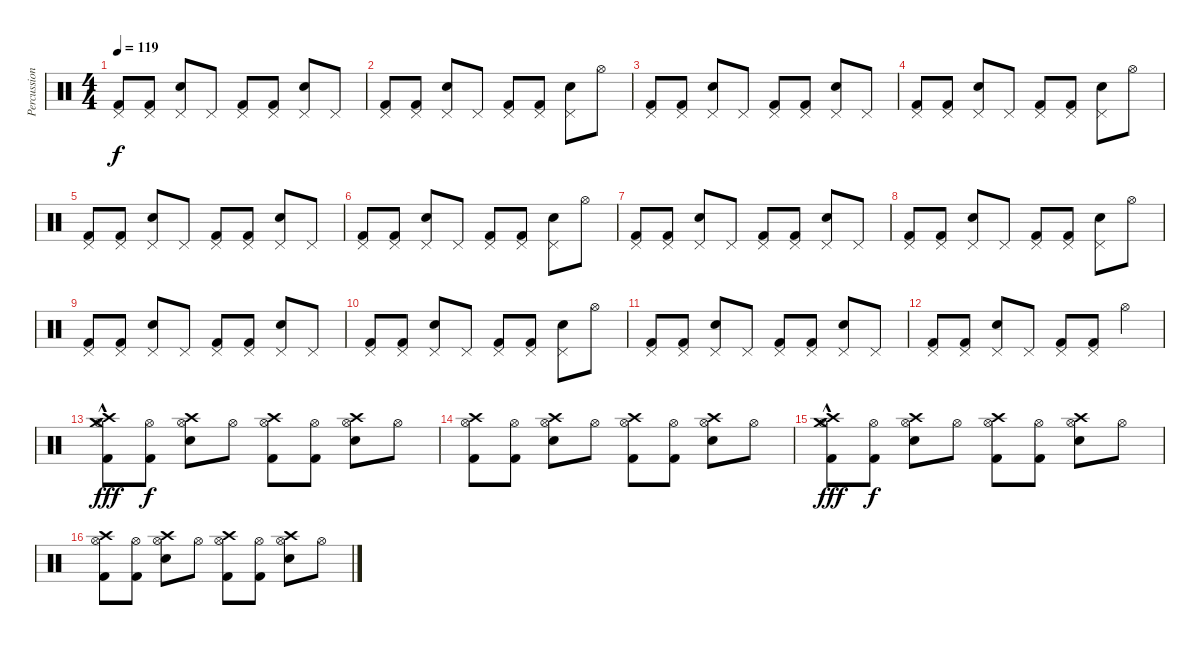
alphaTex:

\track ("Percussion" "Percussion") {instrument percussion}
\staff {score}
\articulation defaults
\ts (4 4)
\tempo 119
\clef neutral
\ks c
("Pedal Hi-Hat (hit)" "Kick (hit) 2").8{dy f} ("Pedal Hi-Hat (hit)" "Kick (hit) 2").8 ("Pedal Hi-Hat (hit)" "Electric Snare (hit)").8 "Pedal Hi-Hat (hit)".8 ("Pedal Hi-Hat (hit)" "Kick (hit) 2").8 ("Pedal Hi-Hat (hit)" "Kick (hit) 2").8 ("Pedal Hi-Hat (hit)" "Electric Snare (hit)").8 "Pedal Hi-Hat (hit)".8 |
("Pedal Hi-Hat (hit)" "Kick (hit) 2").8 ("Pedal Hi-Hat (hit)" "Kick (hit) 2").8 ("Pedal Hi-Hat (hit)" "Electric Snare (hit)").8 "Pedal Hi-Hat (hit)".8 ("Pedal Hi-Hat (hit)" "Kick (hit) 2").8 ("Pedal Hi-Hat (hit)" "Kick (hit) 2").8 ("Pedal Hi-Hat (hit)" "Electric Snare (hit)").8 "Hi-Hat (open)".8 |
("Pedal Hi-Hat (hit)" "Kick (hit) 2").8 ("Pedal Hi-Hat (hit)" "Kick (hit) 2").8 ("Pedal Hi-Hat (hit)" "Electric Snare (hit)").8 "Pedal Hi-Hat (hit)".8 ("Pedal Hi-Hat (hit)" "Kick (hit) 2").8 ("Pedal Hi-Hat (hit)" "Kick (hit) 2").8 ("Pedal Hi-Hat (hit)" "Electric Snare (hit)").8 "Pedal Hi-Hat (hit)".8 |
("Pedal Hi-Hat (hit)" "Kick (hit) 2").8 ("Pedal Hi-Hat (hit)" "Kick (hit) 2").8 ("Pedal Hi-Hat (hit)" "Electric Snare (hit)").8 "Pedal Hi-Hat (hit)".8 ("Pedal Hi-Hat (hit)" "Kick (hit) 2").8 ("Pedal Hi-Hat (hit)" "Kick (hit) 2").8 ("Pedal Hi-Hat (hit)" "Electric Snare (hit)").8 "Hi-Hat (open)".8 |
("Pedal Hi-Hat (hit)" "Kick (hit) 2").8 ("Pedal Hi-Hat (hit)" "Kick (hit) 2").8 ("Pedal Hi-Hat (hit)" "Electric Snare (hit)").8 "Pedal Hi-Hat (hit)".8 ("Pedal Hi-Hat (hit)" "Kick (hit) 2").8 ("Pedal Hi-Hat (hit)" "Kick (hit) 2").8 ("Pedal Hi-Hat (hit)" "Electric Snare (hit)").8 "Pedal Hi-Hat (hit)".8 |
("Pedal Hi-Hat (hit)" "Kick (hit) 2").8 ("Pedal Hi-Hat (hit)" "Kick (hit) 2").8 ("Pedal Hi-Hat (hit)" "Electric Snare (hit)").8 "Pedal Hi-Hat (hit)".8 ("Pedal Hi-Hat (hit)" "Kick (hit) 2").8 ("Pedal Hi-Hat (hit)" "Kick (hit) 2").8 ("Pedal Hi-Hat (hit)" "Electric Snare (hit)").8 "Hi-Hat (open)".8 |
("Pedal Hi-Hat (hit)" "Kick (hit) 2").8 ("Pedal Hi-Hat (hit)" "Kick (hit) 2").8 ("Pedal Hi-Hat (hit)" "Electric Snare (hit)").8 "Pedal Hi-Hat (hit)".8 ("Pedal Hi-Hat (hit)" "Kick (hit) 2").8 ("Pedal Hi-Hat (hit)" "Kick (hit) 2").8 ("Pedal Hi-Hat (hit)" "Electric Snare (hit)").8 "Pedal Hi-Hat (hit)".8 |
("Pedal Hi-Hat (hit)" "Kick (hit) 2").8 ("Pedal Hi-Hat (hit)" "Kick (hit) 2").8 ("Pedal Hi-Hat (hit)" "Electric Snare (hit)").8 "Pedal Hi-Hat (hit)".8 ("Pedal Hi-Hat (hit)" "Kick (hit) 2").8 ("Pedal Hi-Hat (hit)" "Kick (hit) 2").8 ("Pedal Hi-Hat (hit)" "Electric Snare (hit)").8 "Hi-Hat (open)".8 |
("Pedal Hi-Hat (hit)" "Kick (hit) 2").8 ("Pedal Hi-Hat (hit)" "Kick (hit) 2").8 ("Pedal Hi-Hat (hit)" "Electric Snare (hit)").8 "Pedal Hi-Hat (hit)".8 ("Pedal Hi-Hat (hit)" "Kick (hit) 2").8 ("Pedal Hi-Hat (hit)" "Kick (hit) 2").8 ("Pedal Hi-Hat (hit)" "Electric Snare (hit)").8 "Pedal Hi-Hat (hit)".8 |
("Pedal Hi-Hat (hit)" "Kick (hit) 2").8 ("Pedal Hi-Hat (hit)" "Kick (hit) 2").8 ("Pedal Hi-Hat (hit)" "Electric Snare (hit)").8 "Pedal Hi-Hat (hit)".8 ("Pedal Hi-Hat (hit)" "Kick (hit) 2").8 ("Pedal Hi-Hat (hit)" "Kick (hit) 2").8 ("Pedal Hi-Hat (hit)" "Electric Snare (hit)").8 "Hi-Hat (open)".8 |
("Pedal Hi-Hat (hit)" "Kick (hit) 2").8 ("Pedal Hi-Hat (hit)" "Kick (hit) 2").8 ("Pedal Hi-Hat (hit)" "Electric Snare (hit)").8 "Pedal Hi-Hat (hit)".8 ("Pedal Hi-Hat (hit)" "Kick (hit) 2").8 ("Pedal Hi-Hat (hit)" "Kick (hit) 2").8 ("Pedal Hi-Hat (hit)" "Electric Snare (hit)").8 "Pedal Hi-Hat (hit)".8 |
("Pedal Hi-Hat (hit)" "Kick (hit) 2").8 ("Pedal Hi-Hat (hit)" "Kick (hit) 2").8 ("Pedal Hi-Hat (hit)" "Electric Snare (hit)").8 "Pedal Hi-Hat (hit)".8 ("Pedal Hi-Hat (hit)" "Kick (hit) 2").8 ("Pedal Hi-Hat (hit)" "Kick (hit) 2").8 "Hi-Hat (open)".4 |
("Crash high (hit)"{hac} "Hi-Hat (open)"{hac} "Crash medium (hit)"{hac} "Kick (hit) 2").8{dy fff} ("Hi-Hat (open)" "Kick (hit) 2").8{dy f} ("Crash high (hit)" "Hi-Hat (open)" "Electric Snare (hit)").8 "Hi-Hat (open)".8 ("Crash high (hit)" "Hi-Hat (open)" "Kick (hit) 2").8 ("Hi-Hat (open)" "Kick (hit) 2").8 ("Crash high (hit)" "Hi-Hat (open)" "Electric Snare (hit)").8 "Hi-Hat (open)".8 |
("Crash high (hit)" "Hi-Hat (open)" "Kick (hit) 2").8 ("Hi-Hat (open)" "Kick (hit) 2").8 ("Crash high (hit)" "Hi-Hat (open)" "Electric Snare (hit)").8 "Hi-Hat (open)".8 ("Crash high (hit)" "Hi-Hat (open)" "Kick (hit) 2").8 ("Hi-Hat (open)" "Kick (hit) 2").8 ("Crash high (hit)" "Hi-Hat (open)" "Electric Snare (hit)").8 "Hi-Hat (open)".8 |
("Crash high (hit)"{hac} "Hi-Hat (open)"{hac} "Crash medium (hit)"{hac} "Kick (hit) 2").8{dy fff} ("Hi-Hat (open)" "Kick (hit) 2").8{dy f} ("Crash high (hit)" "Hi-Hat (open)" "Electric Snare (hit)").8 "Hi-Hat (open)".8 ("Crash high (hit)" "Hi-Hat (open)" "Kick (hit) 2").8 ("Hi-Hat (open)" "Kick (hit) 2").8 ("Crash high (hit)" "Hi-Hat (open)" "Electric Snare (hit)").8 "Hi-Hat (open)".8 |
("Crash high (hit)" "Hi-Hat (open)" "Kick (hit) 2").8 ("Hi-Hat (open)" "Kick (hit) 2").8 ("Crash high (hit)" "Hi-Hat (open)" "Electric Snare (hit)").8 "Hi-Hat (open)".8 ("Crash high (hit)" "Hi-Hat (open)" "Kick (hit) 2").8 ("Hi-Hat (open)" "Kick (hit) 2").8 ("Crash high (hit)" "Hi-Hat (open)" "Electric Snare (hit)").8 "Hi-Hat (open)".8
